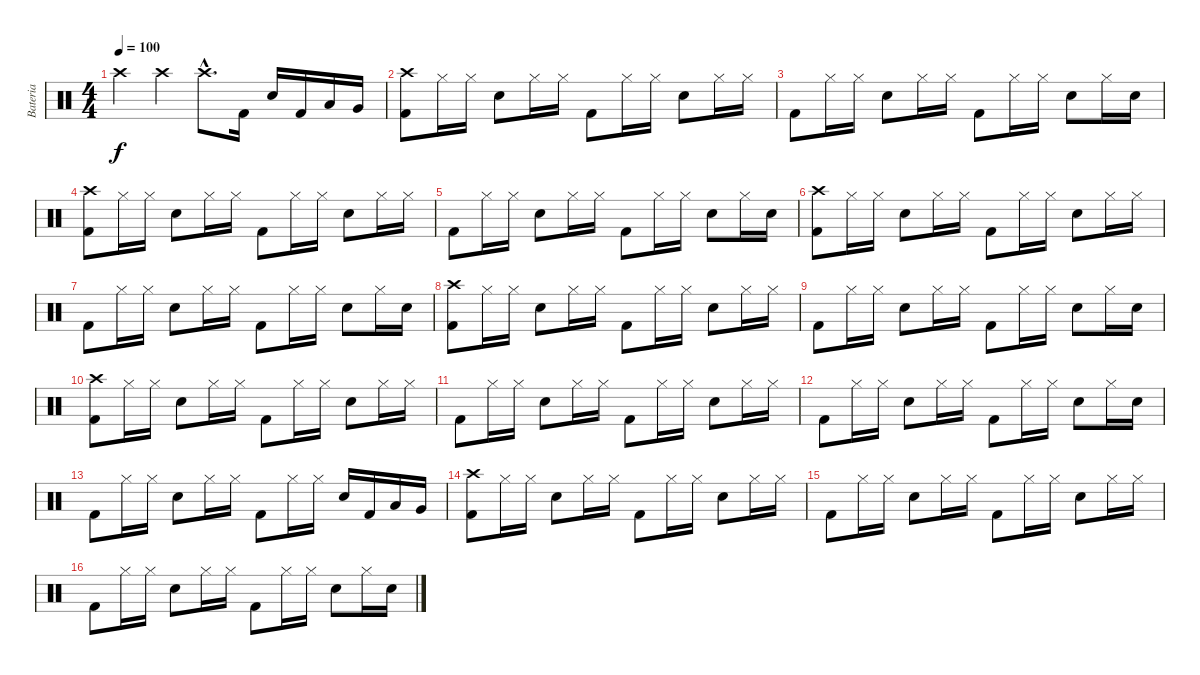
\track ("Bateria" "Bateria") {instrument percussion}
\staff {score}
\articulation defaults
\ts (4 4)
\tempo 100
\clef neutral
\ks c "Crash high (hit)".4{dy f} "Crash high (hit)".4 "Crash high (hit)"{hac}.8{d} "Kick (hit) 2".16 "Electric Snare (hit)".16 "Kick (hit) 2".16 "Low Tom (hit)".16 "Very Low Tom (hit)".16
|
("Crash high (hit)" "Kick (hit) 2").8 "Hi-Hat (closed)".16 "Hi-Hat (closed)".16 "Electric Snare (hit)".8 "Hi-Hat (closed)".16 "Hi-Hat (closed)".16 "Kick (hit) 2".8 "Hi-Hat (closed)".16 "Hi-Hat (closed)".16 "Electric Snare (hit)".8 "Hi-Hat (closed)".16 "Hi-Hat (closed)".16 |
"Kick (hit) 2".8 "Hi-Hat (closed)".16 "Hi-Hat (closed)".16 "Electric Snare (hit)".8 "Hi-Hat (closed)".16 "Hi-Hat (closed)".16 "Kick (hit) 2".8 "Hi-Hat (closed)".16 "Hi-Hat (closed)".16 "Electric Snare (hit)".8 "Hi-Hat (closed)".16 "Electric Snare (hit)".16 |
("Crash high (hit)" "Kick (hit) 2").8 "Hi-Hat (closed)".16 "Hi-Hat (closed)".16 "Electric Snare (hit)".8 "Hi-Hat (closed)".16 "Hi-Hat (closed)".16 "Kick (hit) 2".8 "Hi-Hat (closed)".16 "Hi-Hat (closed)".16 "Electric Snare (hit)".8 "Hi-Hat (closed)".16 "Hi-Hat (closed)".16 |
"Kick (hit) 2".8 "Hi-Hat (closed)".16 "Hi-Hat (closed)".16 "Electric Snare (hit)".8 "Hi-Hat (closed)".16 "Hi-Hat (closed)".16 "Kick (hit) 2".8 "Hi-Hat (closed)".16 "Hi-Hat (closed)".16 "Electric Snare (hit)".8 "Hi-Hat (closed)".16 "Electric Snare (hit)".16 |
("Crash high (hit)" "Kick (hit) 2").8 "Hi-Hat (closed)".16 "Hi-Hat (closed)".16 "Electric Snare (hit)".8 "Hi-Hat (closed)".16 "Hi-Hat (closed)".16 "Kick (hit) 2".8 "Hi-Hat (closed)".16 "Hi-Hat (closed)".16 "Electric Snare (hit)".8 "Hi-Hat (closed)".16 "Hi-Hat (closed)".16 |
"Kick (hit) 2".8 "Hi-Hat (closed)".16 "Hi-Hat (closed)".16 "Electric Snare (hit)".8 "Hi-Hat (closed)".16 "Hi-Hat (closed)".16 "Kick (hit) 2".8 "Hi-Hat (closed)".16 "Hi-Hat (closed)".16 "Electric Snare (hit)".8 "Hi-Hat (closed)".16 "Electric Snare (hit)".16 |
("Crash high (hit)" "Kick (hit) 2").8 "Hi-Hat (closed)".16 "Hi-Hat (closed)".16 "Electric Snare (hit)".8 "Hi-Hat (closed)".16 "Hi-Hat (closed)".16 "Kick (hit) 2".8 "Hi-Hat (closed)".16 "Hi-Hat (closed)".16 "Electric Snare (hit)".8 "Hi-Hat (closed)".16 "Hi-Hat (closed)".16 |
"Kick (hit) 2".8 "Hi-Hat (closed)".16 "Hi-Hat (closed)".16 "Electric Snare (hit)".8 "Hi-Hat (closed)".16 "Hi-Hat (closed)".16 "Kick (hit) 2".8 "Hi-Hat (closed)".16 "Hi-Hat (closed)".16 "Electric Snare (hit)".8 "Hi-Hat (closed)".16 "Electric Snare (hit)".16 |
("Crash high (hit)" "Kick (hit) 2").8 "Hi-Hat (closed)".16 "Hi-Hat (closed)".16 "Electric Snare (hit)".8 "Hi-Hat (closed)".16 "Hi-Hat (closed)".16 "Kick (hit) 2".8 "Hi-Hat (closed)".16 "Hi-Hat (closed)".16 "Electric Snare (hit)".8 "Hi-Hat (closed)".16 "Hi-Hat (closed)".16 |
"Kick (hit) 2".8 "Hi-Hat (closed)".16 "Hi-Hat (closed)".16 "Electric Snare (hit)".8 "Hi-Hat (closed)".16 "Hi-Hat (closed)".16 "Kick (hit) 2".8 "Hi-Hat (closed)".16 "Hi-Hat (closed)".16 "Electric Snare (hit)".8 "Hi-Hat (closed)".16 "Hi-Hat (closed)".16 |
"Kick (hit) 2".8 "Hi-Hat (closed)".16 "Hi-Hat (closed)".16 "Electric Snare (hit)".8 "Hi-Hat (closed)".16 "Hi-Hat (closed)".16 "Kick (hit) 2".8 "Hi-Hat (closed)".16 "Hi-Hat (closed)".16 "Electric Snare (hit)".8 "Hi-Hat (closed)".16 "Electric Snare (hit)".16 |
"Kick (hit) 2".8 "Hi-Hat (closed)".16 "Hi-Hat (closed)".16 "Electric Snare (hit)".8 "Hi-Hat (closed)".16 "Hi-Hat (closed)".16 "Kick (hit) 2".8 "Hi-Hat (closed)".16 "Hi-Hat (closed)".16 "Electric Snare (hit)".16 "Kick (hit) 2".16 "Low Tom (hit)".16 "Very Low Tom (hit)".16 |
("Crash high (hit)" "Kick (hit) 2").8 "Hi-Hat (closed)".16 "Hi-Hat (closed)".16 "Electric Snare (hit)".8 "Hi-Hat (closed)".16 "Hi-Hat (closed)".16 "Kick (hit) 2".8 "Hi-Hat (closed)".16 "Hi-Hat (closed)".16 "Electric Snare (hit)".8 "Hi-Hat (closed)".16 "Hi-Hat (closed)".16 |
"Kick (hit) 2".8 "Hi-Hat (closed)".16 "Hi-Hat (closed)".16 "Electric Snare (hit)".8 "Hi-Hat (closed)".16 "Hi-Hat (closed)".16 "Kick (hit) 2".8 "Hi-Hat (closed)".16 "Hi-Hat (closed)".16 "Electric Snare (hit)".8 "Hi-Hat (closed)".16 "Hi-Hat (closed)".16 |
"Kick (hit) 2".8 "Hi-Hat (closed)".16 "Hi-Hat (closed)".16 "Electric Snare (hit)".8 "Hi-Hat (closed)".16 "Hi-Hat (closed)".16 "Kick (hit) 2".8 "Hi-Hat (closed)".16 "Hi-Hat (closed)".16 "Electric Snare (hit)".8 "Hi-Hat (closed)".16 "Electric Snare (hit)".16
